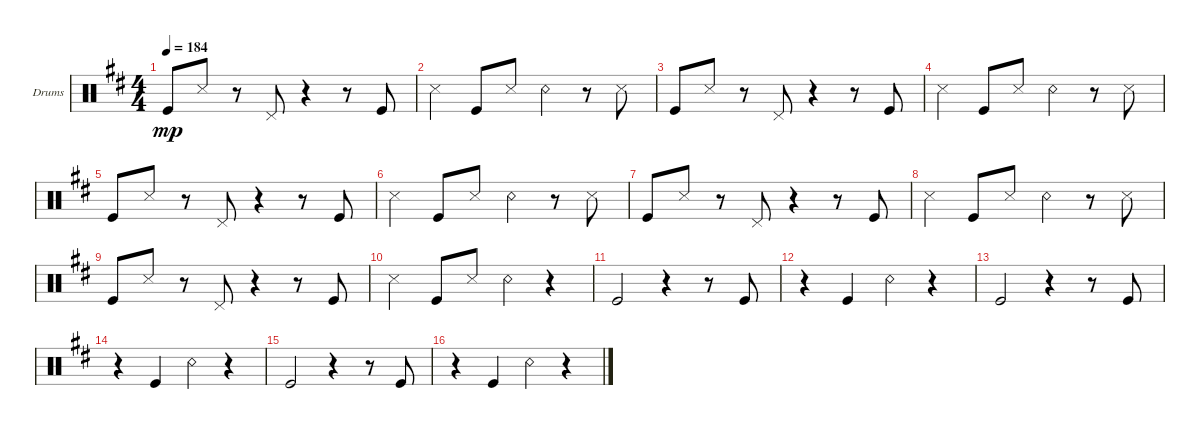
\defaultSystemsLayout 4
\bracketExtendMode groupsimilarinstruments
\firstSystemTrackNameOrientation horizontal
\otherSystemsTrackNameOrientation horizontal
\track ("Drums" "Drums") {instrument percussion}
\staff {score}
\articulation defaults
\ts (4 4)
\tempo 184
\clef neutral
\ks d "Kick (hit)".8{dy mp} "Snare (side stick) 3".8
r.8 "Pedal Hi-Hat (hit)".8 r.4 r.8 "Kick (hit)".8 |
"Snare (side stick) 3".4 "Kick (hit)".8 "Snare (side stick) 3".8 "Snare (rim shot)".4 r.8 "Snare (side stick) 3".8 |
"Kick (hit)".8 "Snare (side stick) 3".8 r.8 "Pedal Hi-Hat (hit)".8 r.4 r.8 "Kick (hit)".8 |
"Snare (side stick) 3".4 "Kick (hit)".8 "Snare (side stick) 3".8 "Snare (rim shot)".4 r.8 "Snare (side stick) 3".8 |
"Kick (hit)".8 "Snare (side stick) 3".8 r.8 "Pedal Hi-Hat (hit)".8 r.4 r.8 "Kick (hit)".8 |
"Snare (side stick) 3".4 "Kick (hit)".8 "Snare (side stick) 3".8 "Snare (rim shot)".4 r.8 "Snare (side stick) 3".8 |
"Kick (hit)".8 "Snare (side stick) 3".8 r.8 "Pedal Hi-Hat (hit)".8 r.4 r.8 "Kick (hit)".8 |
"Snare (side stick) 3".4 "Kick (hit)".8 "Snare (side stick) 3".8 "Snare (rim shot)".4 r.8 "Snare (side stick) 3".8 |
"Kick (hit)".8 "Snare (side stick) 3".8 r.8 "Pedal Hi-Hat (hit)".8 r.4 r.8 "Kick (hit)".8 |
"Snare (side stick) 3".4 "Kick (hit)".8 "Snare (side stick) 3".8 "Snare (rim shot)".4 r.4 |
"Kick (hit)".2 r.4 r.8 "Kick (hit)".8 |
r.4 "Kick (hit)".4 "Snare (rim shot)".4 r.4 |
"Kick (hit)".2 r.4 r.8 "Kick (hit)".8 |
r.4 "Kick (hit)".4 "Snare (rim shot)".4 r.4 |
"Kick (hit)".2 r.4 r.8 "Kick (hit)".8 |
r.4 "Kick (hit)".4 "Snare (rim shot)".4 r.4
